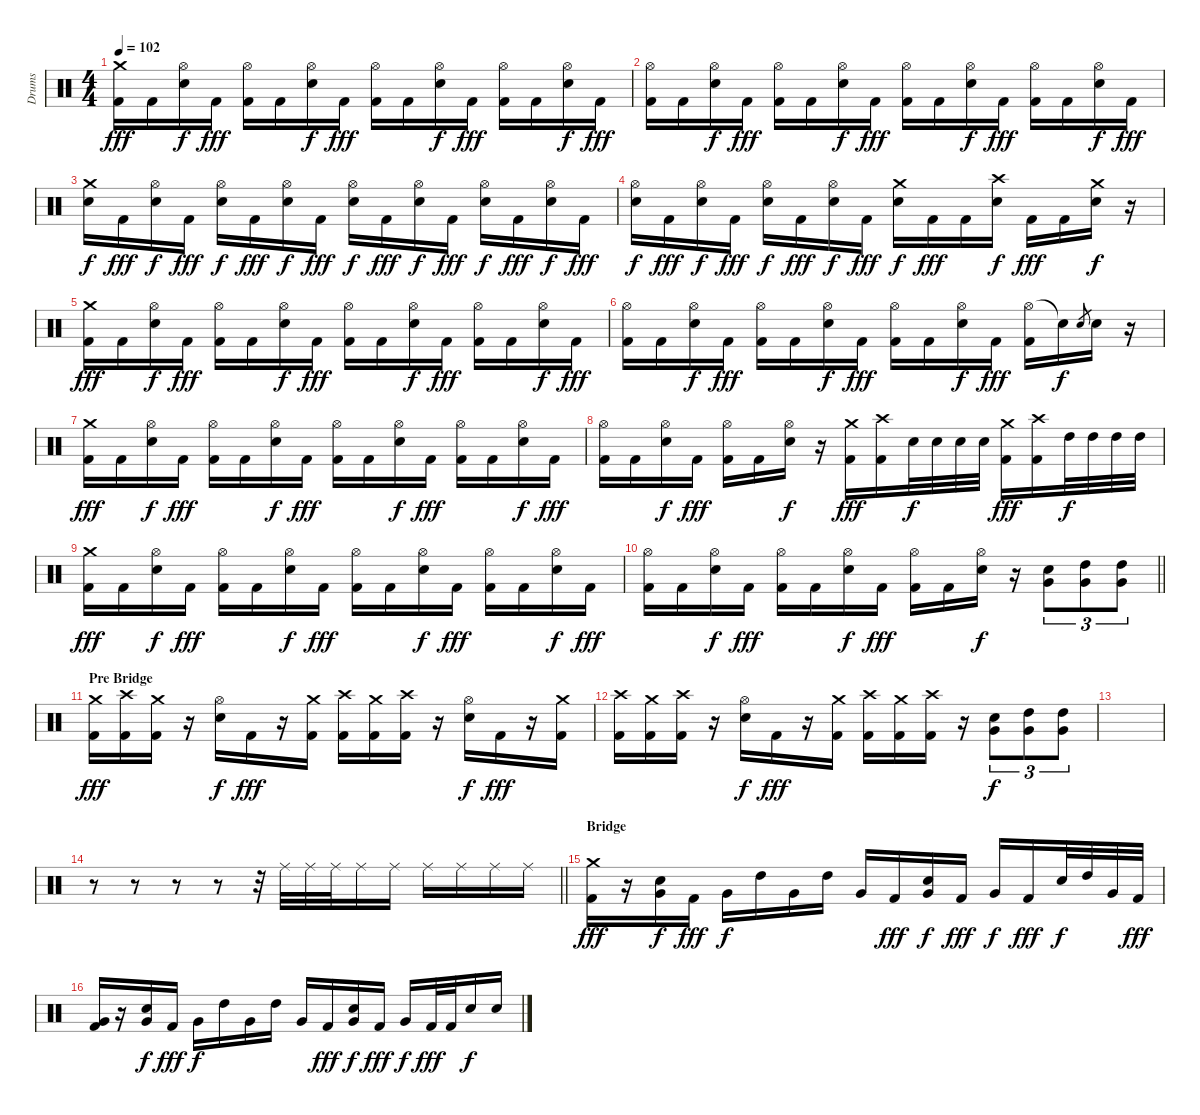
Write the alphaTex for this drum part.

\track ("Drums" "Drums") {instrument percussion}
\staff {score}
\articulation defaults
\ts (4 4)
\tempo 102
\clef neutral
\ks c
("Crash medium (hit)" "Kick (hit) 2").16{dy fff} "Kick (hit) 2".16 ("Hi-Hat (open)" "Snare (hit) 2").16{dy f} "Kick (hit) 2".16{dy fff} ("Hi-Hat (open)" "Kick (hit) 2").16 "Kick (hit) 2".16 ("Hi-Hat (open)" "Snare (hit) 2").16{dy f} "Kick (hit) 2".16{dy fff} ("Hi-Hat (open)" "Kick (hit) 2").16 "Kick (hit) 2".16 ("Hi-Hat (open)" "Snare (hit) 2").16{dy f} "Kick (hit) 2".16{dy fff} ("Hi-Hat (open)" "Kick (hit) 2").16 "Kick (hit) 2".16 ("Hi-Hat (open)" "Snare (hit) 2").16{dy f} "Kick (hit) 2".16{dy fff} |
("Hi-Hat (open)" "Kick (hit) 2").16 "Kick (hit) 2".16 ("Hi-Hat (open)" "Snare (hit) 2").16{dy f} "Kick (hit) 2".16{dy fff} ("Hi-Hat (open)" "Kick (hit) 2").16 "Kick (hit) 2".16 ("Hi-Hat (open)" "Snare (hit) 2").16{dy f} "Kick (hit) 2".16{dy fff} ("Hi-Hat (open)" "Kick (hit) 2").16 "Kick (hit) 2".16 ("Hi-Hat (open)" "Snare (hit) 2").16{dy f} "Kick (hit) 2".16{dy fff} ("Hi-Hat (open)" "Kick (hit) 2").16 "Kick (hit) 2".16 ("Hi-Hat (open)" "Snare (hit) 2").16{dy f} "Kick (hit) 2".16{dy fff} |
("Crash medium (hit)" "Snare (hit) 2").16{dy f} "Kick (hit) 2".16{dy fff} ("Hi-Hat (open)" "Snare (hit) 2").16{dy f} "Kick (hit) 2".16{dy fff} ("Hi-Hat (open)" "Snare (hit) 2").16{dy f} "Kick (hit) 2".16{dy fff} ("Hi-Hat (open)" "Snare (hit) 2").16{dy f} "Kick (hit) 2".16{dy fff} ("Hi-Hat (open)" "Snare (hit) 2").16{dy f} "Kick (hit) 2".16{dy fff} ("Hi-Hat (open)" "Snare (hit) 2").16{dy f} "Kick (hit) 2".16{dy fff} ("Hi-Hat (open)" "Snare (hit) 2").16{dy f} "Kick (hit) 2".16{dy fff} ("Hi-Hat (open)" "Snare (hit) 2").16{dy f} "Kick (hit) 2".16{dy fff} |
("Hi-Hat (open)" "Snare (hit) 2").16{dy f} "Kick (hit) 2".16{dy fff} ("Hi-Hat (open)" "Snare (hit) 2").16{dy f} "Kick (hit) 2".16{dy fff} ("Hi-Hat (open)" "Snare (hit) 2").16{dy f} "Kick (hit) 2".16{dy fff} ("Hi-Hat (open)" "Snare (hit) 2").16{dy f} "Kick (hit) 2".16{dy fff} ("Crash medium (hit)" "Snare (hit) 2").16{dy f} "Kick (hit) 2".16{dy fff} "Kick (hit) 2".16 ("Crash high (hit)" "Snare (hit) 2").16{dy f} "Kick (hit) 2".16{dy fff} "Kick (hit) 2".16 ("Crash medium (hit)" "Snare (hit) 2").16{dy f} r.16 |
("Crash medium (hit)" "Kick (hit) 2").16{dy fff} "Kick (hit) 2".16 ("Hi-Hat (open)" "Snare (hit) 2").16{dy f} "Kick (hit) 2".16{dy fff} ("Hi-Hat (open)" "Kick (hit) 2").16 "Kick (hit) 2".16 ("Hi-Hat (open)" "Snare (hit) 2").16{dy f} "Kick (hit) 2".16{dy fff} ("Hi-Hat (open)" "Kick (hit) 2").16 "Kick (hit) 2".16 ("Hi-Hat (open)" "Snare (hit) 2").16{dy f} "Kick (hit) 2".16{dy fff} ("Hi-Hat (open)" "Kick (hit) 2").16 "Kick (hit) 2".16 ("Hi-Hat (open)" "Snare (hit) 2").16{dy f} "Kick (hit) 2".16{dy fff} |
("Hi-Hat (open)" "Kick (hit) 2").16 "Kick (hit) 2".16 ("Hi-Hat (open)" "Snare (hit) 2").16{dy f} "Kick (hit) 2".16{dy fff} ("Hi-Hat (open)" "Kick (hit) 2").16 "Kick (hit) 2".16 ("Hi-Hat (open)" "Snare (hit) 2").16{dy f} "Kick (hit) 2".16{dy fff} ("Hi-Hat (open)" "Kick (hit) 2").16 "Kick (hit) 2".16 ("Hi-Hat (open)" "Snare (hit) 2").16{dy f} "Kick (hit) 2".16{dy fff} ("Hi-Hat (open)" "Kick (hit) 2").16 "Snare (hit)"{t}.16{dy f} "Snare (hit) 2".8{gr} "Snare (hit) 2".16 r.16 |
("Crash medium (hit)" "Kick (hit) 2").16{dy fff} "Kick (hit) 2".16 ("Hi-Hat (open)" "Snare (hit) 2").16{dy f} "Kick (hit) 2".16{dy fff} ("Hi-Hat (open)" "Kick (hit) 2").16 "Kick (hit) 2".16 ("Hi-Hat (open)" "Snare (hit) 2").16{dy f} "Kick (hit) 2".16{dy fff} ("Hi-Hat (open)" "Kick (hit) 2").16 "Kick (hit) 2".16 ("Hi-Hat (open)" "Snare (hit) 2").16{dy f} "Kick (hit) 2".16{dy fff} ("Hi-Hat (open)" "Kick (hit) 2").16 "Kick (hit) 2".16 ("Hi-Hat (open)" "Snare (hit) 2").16{dy f} "Kick (hit) 2".16{dy fff} |
("Hi-Hat (open)" "Kick (hit) 2").16 "Kick (hit) 2".16 ("Hi-Hat (open)" "Snare (hit) 2").16{dy f} "Kick (hit) 2".16{dy fff} ("Hi-Hat (open)" "Kick (hit) 2").16 "Kick (hit) 2".16 ("Hi-Hat (open)" "Snare (hit) 2").16{dy f} r.16 ("Crash medium (hit)" "Kick (hit) 2").16{dy fff} ("Crash high (hit)" "Kick (hit) 2").16 "Snare (hit) 2".32{dy f} "Snare (hit) 2".32 "Snare (hit) 2".32 "Snare (hit) 2".32 ("Crash medium (hit)" "Kick (hit) 2").16{dy fff} ("Crash high (hit)" "Kick (hit) 2").16 "High Tom (hit)".32{dy f} "High Tom (hit)".32 "High Tom (hit)".32 "High Tom (hit)".32 |
("Crash medium (hit)" "Kick (hit) 2").16{dy fff} "Kick (hit) 2".16 ("Hi-Hat (open)" "Snare (hit) 2").16{dy f} "Kick (hit) 2".16{dy fff} ("Hi-Hat (open)" "Kick (hit) 2").16 "Kick (hit) 2".16 ("Hi-Hat (open)" "Snare (hit) 2").16{dy f} "Kick (hit) 2".16{dy fff} ("Hi-Hat (open)" "Kick (hit) 2").16 "Kick (hit) 2".16 ("Hi-Hat (open)" "Snare (hit) 2").16{dy f} "Kick (hit) 2".16{dy fff} ("Hi-Hat (open)" "Kick (hit) 2").16 "Kick (hit) 2".16 ("Hi-Hat (open)" "Snare (hit) 2").16{dy f} "Kick (hit) 2".16{dy fff} |
\barLineRight lightlight
("Hi-Hat (open)" "Kick (hit) 2").16 "Kick (hit) 2".16 ("Hi-Hat (open)" "Snare (hit) 2").16{dy f} "Kick (hit) 2".16{dy fff} ("Hi-Hat (open)" "Kick (hit) 2").16 "Kick (hit) 2".16 ("Hi-Hat (open)" "Snare (hit) 2").16{dy f} "Kick (hit) 2".16{dy fff} ("Hi-Hat (open)" "Kick (hit) 2").16 "Kick (hit) 2".16 ("Hi-Hat (open)" "Snare (hit) 2").16{dy f} r.16 ("Snare (hit) 2" "Very Low Tom (hit)").8{tu (3 2)} ("High Tom (hit)" "Very Low Tom (hit)").8{tu (3 2)} ("High Tom (hit)" "Very Low Tom (hit)").8{tu (3 2)} |
\section ("" "Pre Bridge")
("Crash medium (hit)" "Kick (hit) 2").16{dy fff} ("Crash high (hit)" "Kick (hit) 2").16 ("Crash medium (hit)" "Kick (hit) 2").16 r.16 ("Hi-Hat (open)" "Snare (hit) 2").16{dy f} "Kick (hit) 2".16{dy fff} r.16 ("Crash medium (hit)" "Kick (hit) 2").16 ("Crash high (hit)" "Kick (hit) 2").16 ("Crash medium (hit)" "Kick (hit) 2").16 ("Crash high (hit)" "Kick (hit) 2").16 r.16 ("Hi-Hat (open)" "Snare (hit) 2").16{dy f} "Kick (hit) 2".16{dy fff} r.16 ("Crash medium (hit)" "Kick (hit) 2").16 |
("Crash high (hit)" "Kick (hit) 2").16 ("Crash medium (hit)" "Kick (hit) 2").16 ("Crash high (hit)" "Kick (hit) 2").16 r.16 ("Hi-Hat (open)" "Snare (hit) 2").16{dy f} "Kick (hit) 2".16{dy fff} r.16 ("Crash medium (hit)" "Kick (hit) 2").16 ("Crash high (hit)" "Kick (hit) 2").16 ("Crash medium (hit)" "Kick (hit) 2").16 ("Crash high (hit)" "Kick (hit) 2").16 r.16 ("Snare (hit) 2" "Very Low Tom (hit)").8{tu (3 2) dy f} ("High Tom (hit)" "Very Low Tom (hit)").8{tu (3 2)} ("High Tom (hit)" "Very Low Tom (hit)").8{tu (3 2)} |
|
\barLineRight lightlight
r.8 r.8 r.8 r.8 r.32 "Ride (middle)".32 "Ride (middle)".32 "Ride (middle)".32 "Ride (middle)".16 "Ride (middle)".16 "Ride (middle)".16 "Ride (middle)".16 "Ride (middle)".16 "Ride (middle)".16 |
\section ("" "Bridge")
("Crash medium (hit)" "Kick (hit) 2").16{dy fff} r.16 ("Snare (hit) 2" "Very Low Tom (hit)").16{dy f} "Kick (hit) 2".16{dy fff} "Very Low Tom (hit)".16{dy f} "High Tom (hit)".16 "Very Low Tom (hit)".16 "High Tom (hit)".16 "Very Low Tom (hit)".16 "Kick (hit) 2".16{dy fff} ("Snare (hit) 2" "Very Low Tom (hit)").16{dy f} "Kick (hit) 2".16{dy fff} "Very Low Tom (hit)".16{dy f} "Kick (hit) 2".16{dy fff} "Snare (hit) 2".32{dy f} "High Tom (hit)".32 "Very Low Tom (hit)".32 "Kick (hit) 2".32{dy fff} |
("Very Low Tom (hit)" "Kick (hit) 2").16 r.16 ("Snare (hit) 2" "Very Low Tom (hit)").16{dy f} "Kick (hit) 2".16{dy fff} "Very Low Tom (hit)".16{dy f} "High Tom (hit)".16 "Very Low Tom (hit)".16 "High Tom (hit)".16 "Very Low Tom (hit)".16 "Kick (hit) 2".16{dy fff} ("Snare (hit) 2" "Very Low Tom (hit)").16{dy f} "Kick (hit) 2".16{dy fff} "Very Low Tom (hit)".16{dy f} "Kick (hit) 2".32{dy fff} "Kick (hit) 2".32 "Snare (hit) 2".16{dy f} "Snare (hit) 2".16
